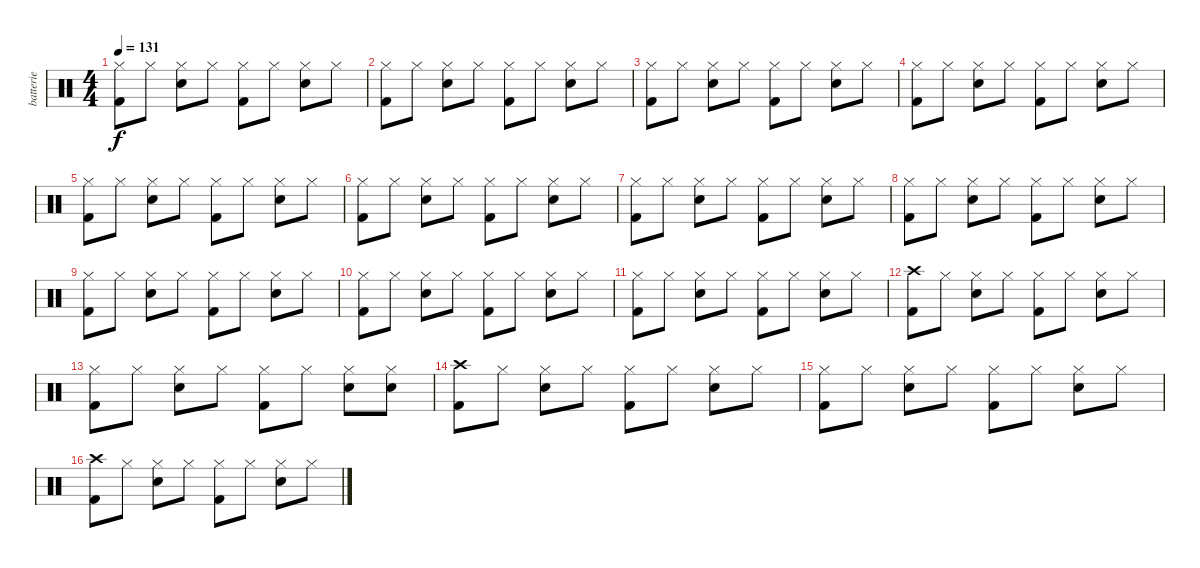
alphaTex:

\track ("batterie" "batterie") {instrument percussion}
\staff {score}
\articulation defaults
\ts (4 4)
\tempo 131
\clef neutral
\ks c
("Hi-Hat (closed)" "Kick (hit) 2").8{dy f} "Hi-Hat (closed)".8 ("Hi-Hat (closed)" "Electric Snare (hit)").8 "Hi-Hat (closed)".8 ("Hi-Hat (closed)" "Kick (hit) 2").8 "Hi-Hat (closed)".8 ("Hi-Hat (closed)" "Electric Snare (hit)").8 "Hi-Hat (closed)".8 |
("Hi-Hat (closed)" "Kick (hit) 2").8 "Hi-Hat (closed)".8 ("Hi-Hat (closed)" "Electric Snare (hit)").8 "Hi-Hat (closed)".8 ("Hi-Hat (closed)" "Kick (hit) 2").8 "Hi-Hat (closed)".8 ("Hi-Hat (closed)" "Electric Snare (hit)").8 "Hi-Hat (closed)".8 |
("Hi-Hat (closed)" "Kick (hit) 2").8 "Hi-Hat (closed)".8 ("Hi-Hat (closed)" "Electric Snare (hit)").8 "Hi-Hat (closed)".8 ("Hi-Hat (closed)" "Kick (hit) 2").8 "Hi-Hat (closed)".8 ("Hi-Hat (closed)" "Electric Snare (hit)").8 "Hi-Hat (closed)".8 |
("Hi-Hat (closed)" "Kick (hit) 2").8 "Hi-Hat (closed)".8 ("Hi-Hat (closed)" "Electric Snare (hit)").8 "Hi-Hat (closed)".8 ("Hi-Hat (closed)" "Kick (hit) 2").8 "Hi-Hat (closed)".8 ("Hi-Hat (closed)" "Electric Snare (hit)").8 "Hi-Hat (closed)".8 |
("Hi-Hat (closed)" "Kick (hit) 2").8 "Hi-Hat (closed)".8 ("Hi-Hat (closed)" "Electric Snare (hit)").8 "Hi-Hat (closed)".8 ("Hi-Hat (closed)" "Kick (hit) 2").8 "Hi-Hat (closed)".8 ("Hi-Hat (closed)" "Electric Snare (hit)").8 "Hi-Hat (closed)".8 |
("Hi-Hat (closed)" "Kick (hit) 2").8 "Hi-Hat (closed)".8 ("Hi-Hat (closed)" "Electric Snare (hit)").8 "Hi-Hat (closed)".8 ("Hi-Hat (closed)" "Kick (hit) 2").8 "Hi-Hat (closed)".8 ("Hi-Hat (closed)" "Electric Snare (hit)").8 "Hi-Hat (closed)".8 |
("Hi-Hat (closed)" "Kick (hit) 2").8 "Hi-Hat (closed)".8 ("Hi-Hat (closed)" "Electric Snare (hit)").8 "Hi-Hat (closed)".8 ("Hi-Hat (closed)" "Kick (hit) 2").8 "Hi-Hat (closed)".8 ("Hi-Hat (closed)" "Electric Snare (hit)").8 "Hi-Hat (closed)".8 |
("Hi-Hat (closed)" "Kick (hit) 2").8 "Hi-Hat (closed)".8 ("Hi-Hat (closed)" "Electric Snare (hit)").8 "Hi-Hat (closed)".8 ("Hi-Hat (closed)" "Kick (hit) 2").8 "Hi-Hat (closed)".8 ("Hi-Hat (closed)" "Electric Snare (hit)").8 "Hi-Hat (closed)".8 |
("Hi-Hat (closed)" "Kick (hit) 2").8 "Hi-Hat (closed)".8 ("Hi-Hat (closed)" "Electric Snare (hit)").8 "Hi-Hat (closed)".8 ("Hi-Hat (closed)" "Kick (hit) 2").8 "Hi-Hat (closed)".8 ("Hi-Hat (closed)" "Electric Snare (hit)").8 "Hi-Hat (closed)".8 |
("Hi-Hat (closed)" "Kick (hit) 2").8 "Hi-Hat (closed)".8 ("Hi-Hat (closed)" "Electric Snare (hit)").8 "Hi-Hat (closed)".8 ("Hi-Hat (closed)" "Kick (hit) 2").8 "Hi-Hat (closed)".8 ("Hi-Hat (closed)" "Electric Snare (hit)").8 "Hi-Hat (closed)".8 |
("Hi-Hat (closed)" "Kick (hit) 2").8 "Hi-Hat (closed)".8 ("Hi-Hat (closed)" "Electric Snare (hit)").8 "Hi-Hat (closed)".8 ("Hi-Hat (closed)" "Kick (hit) 2").8 "Hi-Hat (closed)".8 ("Hi-Hat (closed)" "Electric Snare (hit)").8 "Hi-Hat (closed)".8 |
("Crash high (hit)" "Kick (hit) 2").8 "Hi-Hat (closed)".8 ("Hi-Hat (closed)" "Electric Snare (hit)").8 "Hi-Hat (closed)".8 ("Hi-Hat (closed)" "Kick (hit) 2").8 "Hi-Hat (closed)".8 ("Hi-Hat (closed)" "Electric Snare (hit)").8 "Hi-Hat (closed)".8 |
("Hi-Hat (closed)" "Kick (hit) 2").8 "Hi-Hat (closed)".8 ("Hi-Hat (closed)" "Electric Snare (hit)").8 "Hi-Hat (closed)".8 ("Hi-Hat (closed)" "Kick (hit) 2").8 "Hi-Hat (closed)".8 ("Hi-Hat (closed)" "Electric Snare (hit)").8 ("Hi-Hat (closed)" "Electric Snare (hit)").8 |
("Crash high (hit)" "Kick (hit) 2").8 "Hi-Hat (closed)".8 ("Hi-Hat (closed)" "Electric Snare (hit)").8 "Hi-Hat (closed)".8 ("Hi-Hat (closed)" "Kick (hit) 2").8 "Hi-Hat (closed)".8 ("Hi-Hat (closed)" "Electric Snare (hit)").8 "Hi-Hat (closed)".8 |
("Hi-Hat (closed)" "Kick (hit) 2").8 "Hi-Hat (closed)".8 ("Hi-Hat (closed)" "Electric Snare (hit)").8 "Hi-Hat (closed)".8 ("Hi-Hat (closed)" "Kick (hit) 2").8 "Hi-Hat (closed)".8 ("Hi-Hat (closed)" "Electric Snare (hit)").8 "Hi-Hat (closed)".8 |
("Crash high (hit)" "Kick (hit) 2").8 "Hi-Hat (closed)".8 ("Hi-Hat (closed)" "Electric Snare (hit)").8 "Hi-Hat (closed)".8 ("Hi-Hat (closed)" "Kick (hit) 2").8 "Hi-Hat (closed)".8 ("Hi-Hat (closed)" "Electric Snare (hit)").8 "Hi-Hat (closed)".8
